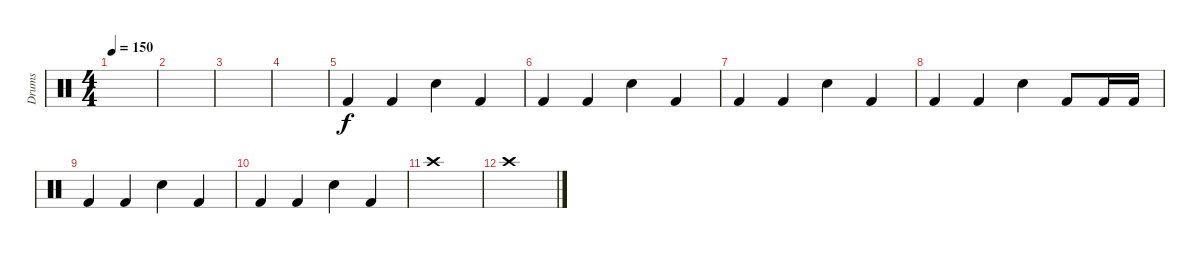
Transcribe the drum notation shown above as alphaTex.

\track ("Drums" "Drums") {instrument percussion}
\staff {score}
\articulation defaults
\ts (4 4)
\tempo 150
\clef neutral
\ks c
|
|
|
|
"Kick (hit) 2".4{dy f} "Kick (hit) 2".4 "Electric Snare (hit)".4 "Kick (hit) 2".4 |
"Kick (hit) 2".4 "Kick (hit) 2".4 "Electric Snare (hit)".4 "Kick (hit) 2".4 |
"Kick (hit) 2".4 "Kick (hit) 2".4 "Electric Snare (hit)".4 "Kick (hit) 2".4 |
"Kick (hit) 2".4 "Kick (hit) 2".4 "Electric Snare (hit)".4 "Kick (hit) 2".8 "Kick (hit) 2".16 "Kick (hit) 2".16 |
"Kick (hit) 2".4 "Kick (hit) 2".4 "Electric Snare (hit)".4 "Kick (hit) 2".4 |
"Kick (hit) 2".4 "Kick (hit) 2".4 "Electric Snare (hit)".4 "Kick (hit) 2".4 |
"Crash high (hit)".1 |
"Crash high (hit)".1
